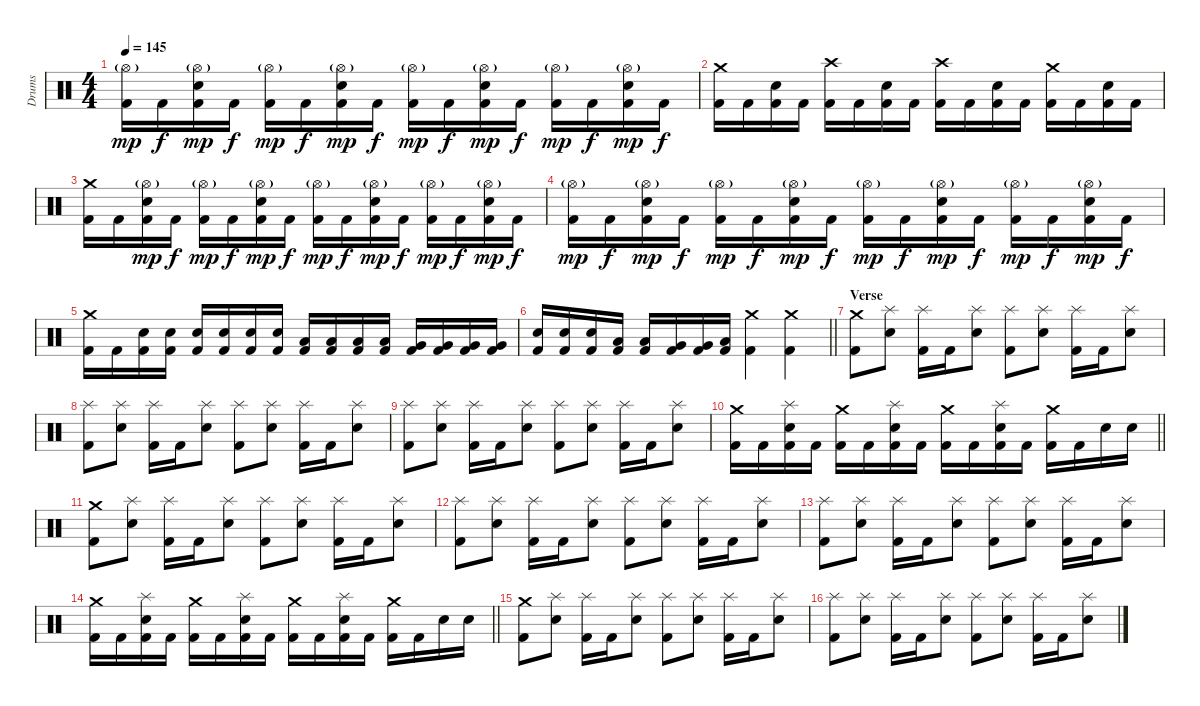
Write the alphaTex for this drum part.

\track ("Drums" "Drums") {instrument percussion}
\staff {score}
\articulation defaults
\ts (4 4)
\tempo 145
\clef neutral
\ks c
("Kick (hit) 2" "Hi-Hat (open)"{g}).16{dy mp} "Kick (hit) 2".16{dy f} ("Kick (hit) 2" "Snare (hit) 2" "Hi-Hat (open)"{g}).16{dy mp} "Kick (hit) 2".16{dy f} ("Kick (hit) 2" "Hi-Hat (open)"{g}).16{dy mp} "Kick (hit) 2".16{dy f} ("Kick (hit) 2" "Snare (hit) 2" "Hi-Hat (open)"{g}).16{dy mp} "Kick (hit) 2".16{dy f} ("Kick (hit) 2" "Hi-Hat (open)"{g}).16{dy mp} "Kick (hit) 2".16{dy f} ("Kick (hit) 2" "Snare (hit) 2" "Hi-Hat (open)"{g}).16{dy mp} "Kick (hit) 2".16{dy f} ("Kick (hit) 2" "Hi-Hat (open)"{g}).16{dy mp} "Kick (hit) 2".16{dy f} ("Kick (hit) 2" "Snare (hit) 2" "Hi-Hat (open)"{g}).16{dy mp} "Kick (hit) 2".16{dy f} |
("Kick (hit) 2" "Crash medium (hit)").16 "Kick (hit) 2".16 ("Kick (hit) 2" "Snare (hit) 2").16 "Kick (hit) 2".16 ("Kick (hit) 2" "Crash high (hit)").16 "Kick (hit) 2".16 ("Kick (hit) 2" "Snare (hit) 2").16 "Kick (hit) 2".16 ("Kick (hit) 2" "Crash high (hit)").16 "Kick (hit) 2".16 ("Kick (hit) 2" "Snare (hit) 2").16 "Kick (hit) 2".16 ("Kick (hit) 2" "Crash medium (hit)").16 "Kick (hit) 2".16 ("Kick (hit) 2" "Snare (hit) 2").16 "Kick (hit) 2".16 |
("Kick (hit) 2" "Crash medium (hit)").16 "Kick (hit) 2".16 ("Kick (hit) 2" "Snare (hit) 2" "Hi-Hat (open)"{g}).16{dy mp} "Kick (hit) 2".16{dy f} ("Kick (hit) 2" "Hi-Hat (open)"{g}).16{dy mp} "Kick (hit) 2".16{dy f} ("Kick (hit) 2" "Snare (hit) 2" "Hi-Hat (open)"{g}).16{dy mp} "Kick (hit) 2".16{dy f} ("Kick (hit) 2" "Hi-Hat (open)"{g}).16{dy mp} "Kick (hit) 2".16{dy f} ("Kick (hit) 2" "Snare (hit) 2" "Hi-Hat (open)"{g}).16{dy mp} "Kick (hit) 2".16{dy f} ("Kick (hit) 2" "Hi-Hat (open)"{g}).16{dy mp} "Kick (hit) 2".16{dy f} ("Kick (hit) 2" "Snare (hit) 2" "Hi-Hat (open)"{g}).16{dy mp} "Kick (hit) 2".16{dy f} |
("Kick (hit) 2" "Hi-Hat (open)"{g}).16{dy mp} "Kick (hit) 2".16{dy f} ("Kick (hit) 2" "Snare (hit) 2" "Hi-Hat (open)"{g}).16{dy mp} "Kick (hit) 2".16{dy f} ("Kick (hit) 2" "Hi-Hat (open)"{g}).16{dy mp} "Kick (hit) 2".16{dy f} ("Kick (hit) 2" "Snare (hit) 2" "Hi-Hat (open)"{g}).16{dy mp} "Kick (hit) 2".16{dy f} ("Kick (hit) 2" "Hi-Hat (open)"{g}).16{dy mp} "Kick (hit) 2".16{dy f} ("Kick (hit) 2" "Snare (hit) 2" "Hi-Hat (open)"{g}).16{dy mp} "Kick (hit) 2".16{dy f} ("Kick (hit) 2" "Hi-Hat (open)"{g}).16{dy mp} "Kick (hit) 2".16{dy f} ("Kick (hit) 2" "Snare (hit) 2" "Hi-Hat (open)"{g}).16{dy mp} "Kick (hit) 2".16{dy f} |
("Kick (hit) 2" "Crash medium (hit)").16 "Kick (hit) 2".16 ("Kick (hit) 2" "Snare (hit) 2").16 ("Kick (hit) 2" "Snare (hit) 2").16 ("Kick (hit) 2" "Snare (hit) 2").16 ("Kick (hit) 2" "Snare (hit) 2").16 ("Kick (hit) 2" "Snare (hit) 2").16 ("Kick (hit) 2" "Snare (hit) 2").16 ("Kick (hit) 2" "Low Tom (hit)").16 ("Kick (hit) 2" "Low Tom (hit)").16 ("Kick (hit) 2" "Low Tom (hit)").16 ("Kick (hit) 2" "Low Tom (hit)").16 ("Kick (hit) 2" "Very Low Tom (hit)").16 ("Kick (hit) 2" "Very Low Tom (hit)").16 ("Kick (hit) 2" "Very Low Tom (hit)").16 ("Kick (hit) 2" "Very Low Tom (hit)").16 |
\barLineRight lightlight
("Kick (hit) 2" "Snare (hit) 2").16 ("Kick (hit) 2" "Snare (hit) 2").16 ("Kick (hit) 2" "Snare (hit) 2").16 ("Kick (hit) 2" "Low Tom (hit)").16 ("Kick (hit) 2" "Low Tom (hit)").16 ("Kick (hit) 2" "Very Low Tom (hit)").16 ("Kick (hit) 2" "Very Low Tom (hit)").16 ("Kick (hit) 2" "Low Floor Tom (hit)").16 ("Kick (hit) 2" "Crash medium (hit)").4 ("Kick (hit) 2" "Crash medium (hit)").4 |
\section ("" "Verse")
("Kick (hit) 2" "Crash medium (hit)").8 ("Snare (hit) 2" "Splash (hit)").8 ("Kick (hit) 2" "Splash (hit)").16 "Kick (hit) 2".16 ("Snare (hit) 2" "Splash (hit)").8 ("Kick (hit) 2" "Splash (hit)").8 ("Snare (hit) 2" "Splash (hit)").8 ("Kick (hit) 2" "Splash (hit)").16 "Kick (hit) 2".16 ("Snare (hit) 2" "Splash (hit)").8 |
("Kick (hit) 2" "Splash (hit)").8 ("Snare (hit) 2" "Splash (hit)").8 ("Kick (hit) 2" "Splash (hit)").16 "Kick (hit) 2".16 ("Snare (hit) 2" "Splash (hit)").8 ("Kick (hit) 2" "Splash (hit)").8 ("Snare (hit) 2" "Splash (hit)").8 ("Kick (hit) 2" "Splash (hit)").16 "Kick (hit) 2".16 ("Snare (hit) 2" "Splash (hit)").8 |
("Kick (hit) 2" "Splash (hit)").8 ("Snare (hit) 2" "Splash (hit)").8 ("Kick (hit) 2" "Splash (hit)").16 "Kick (hit) 2".16 ("Snare (hit) 2" "Splash (hit)").8 ("Kick (hit) 2" "Splash (hit)").8 ("Snare (hit) 2" "Splash (hit)").8 ("Kick (hit) 2" "Splash (hit)").16 "Kick (hit) 2".16 ("Snare (hit) 2" "Splash (hit)").8 |
\barLineRight lightlight
("Kick (hit) 2" "Crash medium (hit)").16 "Kick (hit) 2".16 ("Kick (hit) 2" "Snare (hit) 2" "Splash (hit)").16 "Kick (hit) 2".16 ("Kick (hit) 2" "Crash medium (hit)").16 "Kick (hit) 2".16 ("Kick (hit) 2" "Snare (hit) 2" "Splash (hit)").16 "Kick (hit) 2".16 ("Kick (hit) 2" "Crash medium (hit)").16 "Kick (hit) 2".16 ("Kick (hit) 2" "Snare (hit) 2" "Splash (hit)").16 "Kick (hit) 2".16 ("Kick (hit) 2" "Crash medium (hit)").16 "Kick (hit) 2".16 "Snare (hit) 2".16 "Snare (hit) 2".16 |
\section ("" "")
("Kick (hit) 2" "Crash medium (hit)").8 ("Snare (hit) 2" "Splash (hit)").8 ("Kick (hit) 2" "Splash (hit)").16 "Kick (hit) 2".16 ("Snare (hit) 2" "Splash (hit)").8 ("Kick (hit) 2" "Splash (hit)").8 ("Snare (hit) 2" "Splash (hit)").8 ("Kick (hit) 2" "Splash (hit)").16 "Kick (hit) 2".16 ("Snare (hit) 2" "Splash (hit)").8 |
("Kick (hit) 2" "Splash (hit)").8 ("Snare (hit) 2" "Splash (hit)").8 ("Kick (hit) 2" "Splash (hit)").16 "Kick (hit) 2".16 ("Snare (hit) 2" "Splash (hit)").8 ("Kick (hit) 2" "Splash (hit)").8 ("Snare (hit) 2" "Splash (hit)").8 ("Kick (hit) 2" "Splash (hit)").16 "Kick (hit) 2".16 ("Snare (hit) 2" "Splash (hit)").8 |
("Kick (hit) 2" "Splash (hit)").8 ("Snare (hit) 2" "Splash (hit)").8 ("Kick (hit) 2" "Splash (hit)").16 "Kick (hit) 2".16 ("Snare (hit) 2" "Splash (hit)").8 ("Kick (hit) 2" "Splash (hit)").8 ("Snare (hit) 2" "Splash (hit)").8 ("Kick (hit) 2" "Splash (hit)").16 "Kick (hit) 2".16 ("Snare (hit) 2" "Splash (hit)").8 |
\barLineRight lightlight
("Kick (hit) 2" "Crash medium (hit)").16 "Kick (hit) 2".16 ("Kick (hit) 2" "Snare (hit) 2" "Splash (hit)").16 "Kick (hit) 2".16 ("Kick (hit) 2" "Crash medium (hit)").16 "Kick (hit) 2".16 ("Kick (hit) 2" "Snare (hit) 2" "Splash (hit)").16 "Kick (hit) 2".16 ("Kick (hit) 2" "Crash medium (hit)").16 "Kick (hit) 2".16 ("Kick (hit) 2" "Snare (hit) 2" "Splash (hit)").16 "Kick (hit) 2".16 ("Kick (hit) 2" "Crash medium (hit)").16 "Kick (hit) 2".16 "Snare (hit) 2".16 "Snare (hit) 2".16 |
\section ("" "")
("Kick (hit) 2" "Crash medium (hit)").8 ("Snare (hit) 2" "Splash (hit)").8 ("Kick (hit) 2" "Splash (hit)").16 "Kick (hit) 2".16 ("Snare (hit) 2" "Splash (hit)").8 ("Kick (hit) 2" "Splash (hit)").8 ("Snare (hit) 2" "Splash (hit)").8 ("Kick (hit) 2" "Splash (hit)").16 "Kick (hit) 2".16 ("Snare (hit) 2" "Splash (hit)").8 |
("Kick (hit) 2" "Splash (hit)").8 ("Snare (hit) 2" "Splash (hit)").8 ("Kick (hit) 2" "Splash (hit)").16 "Kick (hit) 2".16 ("Snare (hit) 2" "Splash (hit)").8 ("Kick (hit) 2" "Splash (hit)").8 ("Snare (hit) 2" "Splash (hit)").8 ("Kick (hit) 2" "Splash (hit)").16 "Kick (hit) 2".16 ("Snare (hit) 2" "Splash (hit)").8
